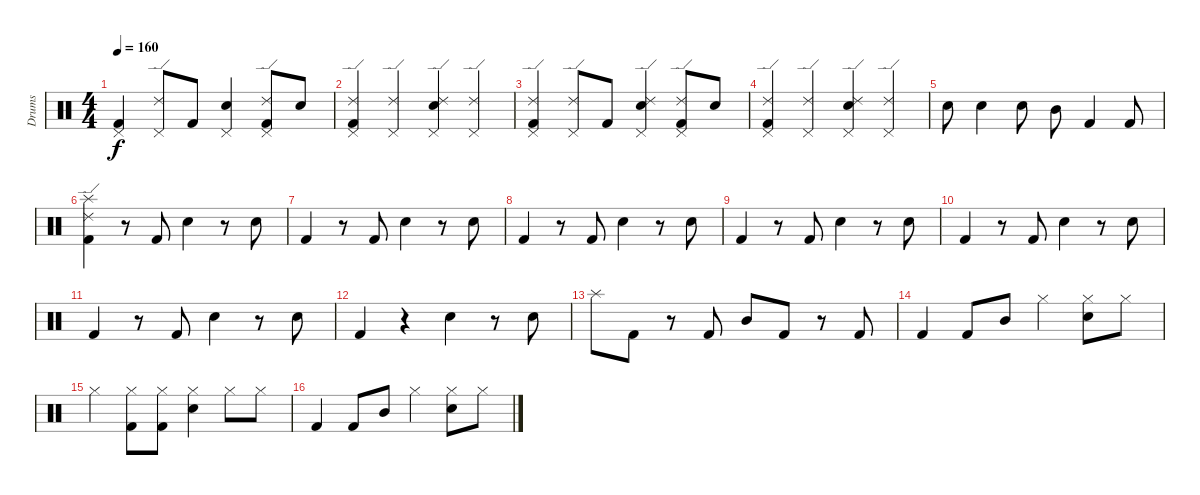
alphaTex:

\track ("Drums" "Drums") {instrument percussion}
\staff {score}
\articulation defaults
\ts (4 4)
\tempo 160
\clef neutral
\ks c
("Pedal Hi-Hat (hit)" "Kick (hit) 2").4{dy f} ("Pedal Hi-Hat (hit)" "Ride (edge) 2").8 "Kick (hit) 2".8 ("Pedal Hi-Hat (hit)" "Snare (hit) 2").4 ("Pedal Hi-Hat (hit)" "Kick (hit) 2" "Ride (edge) 2").8 "Snare (hit) 2".8 |
("Pedal Hi-Hat (hit)" "Kick (hit) 2" "Ride (edge) 2").4 ("Pedal Hi-Hat (hit)" "Ride (edge) 2").4 ("Pedal Hi-Hat (hit)" "Snare (hit) 2" "Ride (edge) 2").4 ("Pedal Hi-Hat (hit)" "Ride (edge) 2").4 |
("Pedal Hi-Hat (hit)" "Kick (hit) 2" "Ride (edge) 2").4 ("Pedal Hi-Hat (hit)" "Ride (edge) 2").8 "Kick (hit) 2".8 ("Pedal Hi-Hat (hit)" "Snare (hit) 2" "Ride (edge) 2").4 ("Pedal Hi-Hat (hit)" "Kick (hit) 2" "Ride (edge) 2").8 "Snare (hit) 2".8 |
("Pedal Hi-Hat (hit)" "Kick (hit) 2" "Ride (edge) 2").4 ("Pedal Hi-Hat (hit)" "Ride (edge) 2").4 ("Pedal Hi-Hat (hit)" "Snare (hit) 2" "Ride (edge) 2").4 ("Pedal Hi-Hat (hit)" "Ride (edge) 2").4 |
"Snare (hit) 2".8 "Snare (hit) 2".4 "Snare (hit) 2".8 "Mid Tom (hit)".8 "Kick (hit) 2".4 "Kick (hit) 2".8 |
("Splash (hit)" "Kick (hit) 2" "Ride (edge) 2").4 r.8 "Kick (hit) 2".8 "Snare (hit) 2".4 r.8 "Snare (hit) 2".8 |
"Kick (hit) 2".4 r.8 "Kick (hit) 2".8 "Snare (hit) 2".4 r.8 "Snare (hit) 2".8 |
"Kick (hit) 2".4 r.8 "Kick (hit) 2".8 "Snare (hit) 2".4 r.8 "Snare (hit) 2".8 |
"Kick (hit) 2".4 r.8 "Kick (hit) 2".8 "Snare (hit) 2".4 r.8 "Snare (hit) 2".8 |
"Kick (hit) 2".4 r.8 "Kick (hit) 2".8 "Snare (hit) 2".4 r.8 "Snare (hit) 2".8 |
"Kick (hit) 2".4 r.8 "Kick (hit) 2".8 "Snare (hit) 2".4 r.8 "Snare (hit) 2".8 |
"Kick (hit) 2".4 r.4 "Snare (hit) 2".4 r.8 "Snare (hit) 2".8 |
"Splash (hit)".8 "Kick (hit) 2".8 r.8 "Kick (hit) 2".8 "Mid Tom (hit)".8 "Kick (hit) 2".8 r.8 "Kick (hit) 2".8 |
"Kick (hit) 2".4 "Kick (hit) 2".8 "Mid Tom (hit)".8 "Hi-Hat (closed)".4 ("Hi-Hat (closed)" "Snare (hit) 2").8 "Hi-Hat (closed)".8 |
"Hi-Hat (closed)".4 ("Hi-Hat (closed)" "Kick (hit) 2").8 ("Hi-Hat (closed)" "Kick (hit) 2").8 ("Hi-Hat (closed)" "Snare (hit) 2").4 "Hi-Hat (closed)".8 "Hi-Hat (closed)".8 |
"Kick (hit) 2".4 "Kick (hit) 2".8 "Mid Tom (hit)".8 "Hi-Hat (closed)".4 ("Hi-Hat (closed)" "Snare (hit) 2").8 "Hi-Hat (closed)".8
